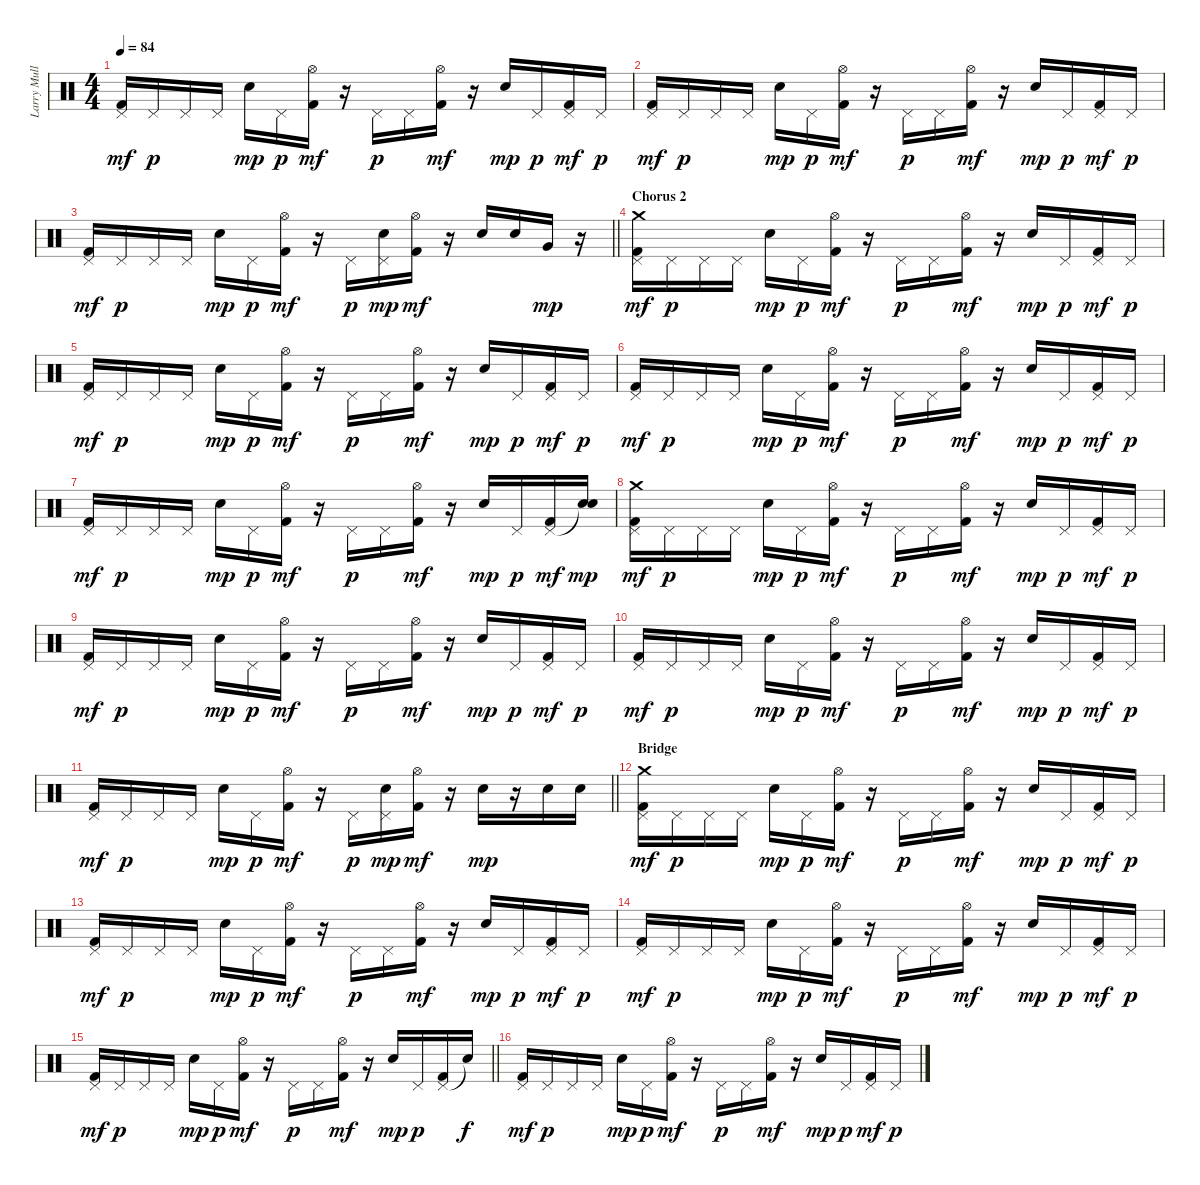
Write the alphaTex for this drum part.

\track ("Larry Mullen Jr." "Larry Mull") {instrument percussion}
\staff {score}
\articulation defaults
\ts (4 4)
\tempo 84
\clef neutral
\ks c
("Pedal Hi-Hat (hit)" "Kick (hit) 2").16{dy mf} "Pedal Hi-Hat (hit)".16{dy p} "Pedal Hi-Hat (hit)".16 "Pedal Hi-Hat (hit)".16 "Electric Snare (hit)".16{dy mp} "Pedal Hi-Hat (hit)".16{dy p} ("Hi-Hat (open)" "Kick (hit) 2").16{dy mf} r.16 "Pedal Hi-Hat (hit)".16{dy p} "Pedal Hi-Hat (hit)".16 ("Hi-Hat (open)" "Kick (hit) 2").16{dy mf} r.16 "Electric Snare (hit)".16{dy mp} "Pedal Hi-Hat (hit)".16{dy p} ("Pedal Hi-Hat (hit)" "Kick (hit) 2").16{dy mf} "Pedal Hi-Hat (hit)".16{dy p} |
("Pedal Hi-Hat (hit)" "Kick (hit) 2").16{dy mf} "Pedal Hi-Hat (hit)".16{dy p} "Pedal Hi-Hat (hit)".16 "Pedal Hi-Hat (hit)".16 "Electric Snare (hit)".16{dy mp} "Pedal Hi-Hat (hit)".16{dy p} ("Hi-Hat (open)" "Kick (hit) 2").16{dy mf} r.16 "Pedal Hi-Hat (hit)".16{dy p} "Pedal Hi-Hat (hit)".16 ("Hi-Hat (open)" "Kick (hit) 2").16{dy mf} r.16 "Electric Snare (hit)".16{dy mp} "Pedal Hi-Hat (hit)".16{dy p} ("Pedal Hi-Hat (hit)" "Kick (hit) 2").16{dy mf} "Pedal Hi-Hat (hit)".16{dy p} |
\barLineRight lightlight
("Pedal Hi-Hat (hit)" "Kick (hit) 2").16{dy mf} "Pedal Hi-Hat (hit)".16{dy p} "Pedal Hi-Hat (hit)".16 "Pedal Hi-Hat (hit)".16 "Electric Snare (hit)".16{dy mp} "Pedal Hi-Hat (hit)".16{dy p} ("Hi-Hat (open)" "Kick (hit) 2").16{dy mf} r.16 "Pedal Hi-Hat (hit)".16{dy p} ("Pedal Hi-Hat (hit)" "Electric Snare (hit)").16{dy mp} ("Hi-Hat (open)" "Kick (hit) 2").16{dy mf} r.16 "Electric Snare (hit)".16 "Electric Snare (hit)".16 "Very Low Tom (hit)".16{dy mp} r.16 |
\section ("" "Chorus 2")
("Pedal Hi-Hat (hit)" "Crash medium (hit)" "Kick (hit) 2").16{dy mf} "Pedal Hi-Hat (hit)".16{dy p} "Pedal Hi-Hat (hit)".16 "Pedal Hi-Hat (hit)".16 "Electric Snare (hit)".16{dy mp} "Pedal Hi-Hat (hit)".16{dy p} ("Hi-Hat (open)" "Kick (hit) 2").16{dy mf} r.16 "Pedal Hi-Hat (hit)".16{dy p} "Pedal Hi-Hat (hit)".16 ("Hi-Hat (open)" "Kick (hit) 2").16{dy mf} r.16 "Electric Snare (hit)".16{dy mp} "Pedal Hi-Hat (hit)".16{dy p} ("Pedal Hi-Hat (hit)" "Kick (hit) 2").16{dy mf} "Pedal Hi-Hat (hit)".16{dy p} |
("Pedal Hi-Hat (hit)" "Kick (hit) 2").16{dy mf} "Pedal Hi-Hat (hit)".16{dy p} "Pedal Hi-Hat (hit)".16 "Pedal Hi-Hat (hit)".16 "Electric Snare (hit)".16{dy mp} "Pedal Hi-Hat (hit)".16{dy p} ("Hi-Hat (open)" "Kick (hit) 2").16{dy mf} r.16 "Pedal Hi-Hat (hit)".16{dy p} "Pedal Hi-Hat (hit)".16 ("Hi-Hat (open)" "Kick (hit) 2").16{dy mf} r.16 "Electric Snare (hit)".16{dy mp} "Pedal Hi-Hat (hit)".16{dy p} ("Pedal Hi-Hat (hit)" "Kick (hit) 2").16{dy mf} "Pedal Hi-Hat (hit)".16{dy p} |
("Pedal Hi-Hat (hit)" "Kick (hit) 2").16{dy mf} "Pedal Hi-Hat (hit)".16{dy p} "Pedal Hi-Hat (hit)".16 "Pedal Hi-Hat (hit)".16 "Electric Snare (hit)".16{dy mp} "Pedal Hi-Hat (hit)".16{dy p} ("Hi-Hat (open)" "Kick (hit) 2").16{dy mf} r.16 "Pedal Hi-Hat (hit)".16{dy p} "Pedal Hi-Hat (hit)".16 ("Hi-Hat (open)" "Kick (hit) 2").16{dy mf} r.16 "Electric Snare (hit)".16{dy mp} "Pedal Hi-Hat (hit)".16{dy p} ("Pedal Hi-Hat (hit)" "Kick (hit) 2").16{dy mf} "Pedal Hi-Hat (hit)".16{dy p} |
("Pedal Hi-Hat (hit)" "Kick (hit) 2").16{dy mf} "Pedal Hi-Hat (hit)".16{dy p} "Pedal Hi-Hat (hit)".16 "Pedal Hi-Hat (hit)".16 "Electric Snare (hit)".16{dy mp} "Pedal Hi-Hat (hit)".16{dy p} ("Hi-Hat (open)" "Kick (hit) 2").16{dy mf} r.16 "Pedal Hi-Hat (hit)".16{dy p} "Pedal Hi-Hat (hit)".16 ("Hi-Hat (open)" "Kick (hit) 2").16{dy mf} r.16 "Electric Snare (hit)".16{dy mp} "Pedal Hi-Hat (hit)".16{dy p} ("Pedal Hi-Hat (hit)" "Kick (hit) 2").16{dy mf} ("Snare (hit)"{t} "Electric Snare (hit)").16{dy mp} |
("Pedal Hi-Hat (hit)" "Crash medium (hit)" "Kick (hit) 2").16{dy mf} "Pedal Hi-Hat (hit)".16{dy p} "Pedal Hi-Hat (hit)".16 "Pedal Hi-Hat (hit)".16 "Electric Snare (hit)".16{dy mp} "Pedal Hi-Hat (hit)".16{dy p} ("Hi-Hat (open)" "Kick (hit) 2").16{dy mf} r.16 "Pedal Hi-Hat (hit)".16{dy p} "Pedal Hi-Hat (hit)".16 ("Hi-Hat (open)" "Kick (hit) 2").16{dy mf} r.16 "Electric Snare (hit)".16{dy mp} "Pedal Hi-Hat (hit)".16{dy p} ("Pedal Hi-Hat (hit)" "Kick (hit) 2").16{dy mf} "Pedal Hi-Hat (hit)".16{dy p} |
("Pedal Hi-Hat (hit)" "Kick (hit) 2").16{dy mf} "Pedal Hi-Hat (hit)".16{dy p} "Pedal Hi-Hat (hit)".16 "Pedal Hi-Hat (hit)".16 "Electric Snare (hit)".16{dy mp} "Pedal Hi-Hat (hit)".16{dy p} ("Hi-Hat (open)" "Kick (hit) 2").16{dy mf} r.16 "Pedal Hi-Hat (hit)".16{dy p} "Pedal Hi-Hat (hit)".16 ("Hi-Hat (open)" "Kick (hit) 2").16{dy mf} r.16 "Electric Snare (hit)".16{dy mp} "Pedal Hi-Hat (hit)".16{dy p} ("Pedal Hi-Hat (hit)" "Kick (hit) 2").16{dy mf} "Pedal Hi-Hat (hit)".16{dy p} |
("Pedal Hi-Hat (hit)" "Kick (hit) 2").16{dy mf} "Pedal Hi-Hat (hit)".16{dy p} "Pedal Hi-Hat (hit)".16 "Pedal Hi-Hat (hit)".16 "Electric Snare (hit)".16{dy mp} "Pedal Hi-Hat (hit)".16{dy p} ("Hi-Hat (open)" "Kick (hit) 2").16{dy mf} r.16 "Pedal Hi-Hat (hit)".16{dy p} "Pedal Hi-Hat (hit)".16 ("Hi-Hat (open)" "Kick (hit) 2").16{dy mf} r.16 "Electric Snare (hit)".16{dy mp} "Pedal Hi-Hat (hit)".16{dy p} ("Pedal Hi-Hat (hit)" "Kick (hit) 2").16{dy mf} "Pedal Hi-Hat (hit)".16{dy p} |
\barLineRight lightlight
("Pedal Hi-Hat (hit)" "Kick (hit) 2").16{dy mf} "Pedal Hi-Hat (hit)".16{dy p} "Pedal Hi-Hat (hit)".16 "Pedal Hi-Hat (hit)".16 "Electric Snare (hit)".16{dy mp} "Pedal Hi-Hat (hit)".16{dy p} ("Hi-Hat (open)" "Kick (hit) 2").16{dy mf} r.16 "Pedal Hi-Hat (hit)".16{dy p} ("Pedal Hi-Hat (hit)" "Electric Snare (hit)").16{dy mp} ("Hi-Hat (open)" "Kick (hit) 2").16{dy mf} r.16 "Electric Snare (hit)".16{dy mp} r.16 "Electric Snare (hit)".16 "Electric Snare (hit)".16 |
\section ("" "Bridge")
("Pedal Hi-Hat (hit)" "Crash medium (hit)" "Kick (hit) 2").16{dy mf} "Pedal Hi-Hat (hit)".16{dy p} "Pedal Hi-Hat (hit)".16 "Pedal Hi-Hat (hit)".16 "Electric Snare (hit)".16{dy mp} "Pedal Hi-Hat (hit)".16{dy p} ("Hi-Hat (open)" "Kick (hit) 2").16{dy mf} r.16 "Pedal Hi-Hat (hit)".16{dy p} "Pedal Hi-Hat (hit)".16 ("Hi-Hat (open)" "Kick (hit) 2").16{dy mf} r.16 "Electric Snare (hit)".16{dy mp} "Pedal Hi-Hat (hit)".16{dy p} ("Pedal Hi-Hat (hit)" "Kick (hit) 2").16{dy mf} "Pedal Hi-Hat (hit)".16{dy p} |
("Pedal Hi-Hat (hit)" "Kick (hit) 2").16{dy mf} "Pedal Hi-Hat (hit)".16{dy p} "Pedal Hi-Hat (hit)".16 "Pedal Hi-Hat (hit)".16 "Electric Snare (hit)".16{dy mp} "Pedal Hi-Hat (hit)".16{dy p} ("Hi-Hat (open)" "Kick (hit) 2").16{dy mf} r.16 "Pedal Hi-Hat (hit)".16{dy p} "Pedal Hi-Hat (hit)".16 ("Hi-Hat (open)" "Kick (hit) 2").16{dy mf} r.16 "Electric Snare (hit)".16{dy mp} "Pedal Hi-Hat (hit)".16{dy p} ("Pedal Hi-Hat (hit)" "Kick (hit) 2").16{dy mf} "Pedal Hi-Hat (hit)".16{dy p} |
("Pedal Hi-Hat (hit)" "Kick (hit) 2").16{dy mf} "Pedal Hi-Hat (hit)".16{dy p} "Pedal Hi-Hat (hit)".16 "Pedal Hi-Hat (hit)".16 "Electric Snare (hit)".16{dy mp} "Pedal Hi-Hat (hit)".16{dy p} ("Hi-Hat (open)" "Kick (hit) 2").16{dy mf} r.16 "Pedal Hi-Hat (hit)".16{dy p} "Pedal Hi-Hat (hit)".16 ("Hi-Hat (open)" "Kick (hit) 2").16{dy mf} r.16 "Electric Snare (hit)".16{dy mp} "Pedal Hi-Hat (hit)".16{dy p} ("Pedal Hi-Hat (hit)" "Kick (hit) 2").16{dy mf} "Pedal Hi-Hat (hit)".16{dy p} |
\barLineRight lightlight
("Pedal Hi-Hat (hit)" "Kick (hit) 2").16{dy mf} "Pedal Hi-Hat (hit)".16{dy p} "Pedal Hi-Hat (hit)".16 "Pedal Hi-Hat (hit)".16 "Electric Snare (hit)".16{dy mp} "Pedal Hi-Hat (hit)".16{dy p} ("Hi-Hat (open)" "Kick (hit) 2").16{dy mf} r.16 "Pedal Hi-Hat (hit)".16{dy p} "Pedal Hi-Hat (hit)".16 ("Hi-Hat (open)" "Kick (hit) 2").16{dy mf} r.16 "Electric Snare (hit)".16{dy mp} "Pedal Hi-Hat (hit)".16{dy p} ("Pedal Hi-Hat (hit)" "Kick (hit) 2").16 "Snare (hit)"{t}.16{dy f} |
("Pedal Hi-Hat (hit)" "Kick (hit) 2").16{dy mf} "Pedal Hi-Hat (hit)".16{dy p} "Pedal Hi-Hat (hit)".16 "Pedal Hi-Hat (hit)".16 "Electric Snare (hit)".16{dy mp} "Pedal Hi-Hat (hit)".16{dy p} ("Hi-Hat (open)" "Kick (hit) 2").16{dy mf} r.16 "Pedal Hi-Hat (hit)".16{dy p} "Pedal Hi-Hat (hit)".16 ("Hi-Hat (open)" "Kick (hit) 2").16{dy mf} r.16 "Electric Snare (hit)".16{dy mp} "Pedal Hi-Hat (hit)".16{dy p} ("Pedal Hi-Hat (hit)" "Kick (hit) 2").16{dy mf} "Pedal Hi-Hat (hit)".16{dy p}
